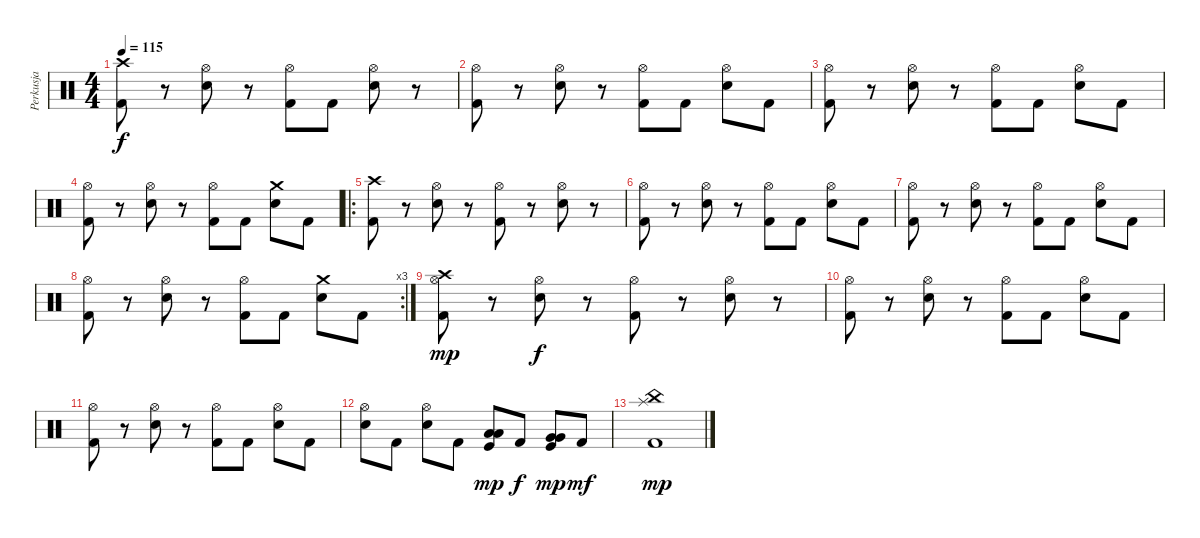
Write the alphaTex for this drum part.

\track ("Perkusja" "Perkusja") {instrument percussion}
\staff {score}
\articulation defaults
\ts (4 4)
\tempo 115
\clef neutral
\ks c
("Crash high (hit)" "Kick (hit) 2").8{dy f} r.8 ("Hi-Hat (open)" "Electric Snare (hit)").8 r.8 ("Hi-Hat (open)" "Kick (hit) 2").8 "Kick (hit) 2".8 ("Hi-Hat (open)" "Electric Snare (hit)").8 r.8 |
("Hi-Hat (open)" "Kick (hit) 2").8 r.8 ("Hi-Hat (open)" "Electric Snare (hit)").8 r.8 ("Hi-Hat (open)" "Kick (hit) 2").8 "Kick (hit) 2".8 ("Hi-Hat (open)" "Electric Snare (hit)").8 "Kick (hit) 2".8 |
("Hi-Hat (open)" "Kick (hit) 2").8 r.8 ("Hi-Hat (open)" "Electric Snare (hit)").8 r.8 ("Hi-Hat (open)" "Kick (hit) 2").8 "Kick (hit) 2".8 ("Hi-Hat (open)" "Electric Snare (hit)").8 "Kick (hit) 2".8 |
("Hi-Hat (open)" "Kick (hit) 2").8 r.8 ("Hi-Hat (open)" "Electric Snare (hit)").8 r.8 ("Hi-Hat (open)" "Kick (hit) 2").8 "Kick (hit) 2".8 ("Crash medium (hit)" "Electric Snare (hit)").8 "Kick (hit) 2".8 |
\ro
("Crash high (hit)" "Kick (hit) 2").8 r.8 ("Hi-Hat (open)" "Electric Snare (hit)").8 r.8 ("Hi-Hat (open)" "Kick (hit) 2").8 r.8 ("Hi-Hat (open)" "Electric Snare (hit)").8 r.8 |
("Hi-Hat (open)" "Kick (hit) 2").8 r.8 ("Hi-Hat (open)" "Electric Snare (hit)").8 r.8 ("Hi-Hat (open)" "Kick (hit) 2").8 "Kick (hit) 2".8 ("Hi-Hat (open)" "Electric Snare (hit)").8 "Kick (hit) 2".8 |
("Hi-Hat (open)" "Kick (hit) 2").8 r.8 ("Hi-Hat (open)" "Electric Snare (hit)").8 r.8 ("Hi-Hat (open)" "Kick (hit) 2").8 "Kick (hit) 2".8 ("Hi-Hat (open)" "Electric Snare (hit)").8 "Kick (hit) 2".8 |
\rc 3
("Hi-Hat (open)" "Kick (hit) 2").8 r.8 ("Hi-Hat (open)" "Electric Snare (hit)").8 r.8 ("Hi-Hat (open)" "Kick (hit) 2").8 "Kick (hit) 2".8 ("Crash medium (hit)" "Electric Snare (hit)").8 "Kick (hit) 2".8 |
("Crash high (hit)" "Hi-Hat (open)" "Kick (hit) 2").8{dy mp} r.8 ("Hi-Hat (open)" "Electric Snare (hit)").8{dy f} r.8 ("Hi-Hat (open)" "Kick (hit) 2").8 r.8 ("Hi-Hat (open)" "Electric Snare (hit)").8 r.8 |
("Hi-Hat (open)" "Kick (hit) 2").8 r.8 ("Hi-Hat (open)" "Electric Snare (hit)").8 r.8 ("Hi-Hat (open)" "Kick (hit) 2").8 "Kick (hit) 2".8 ("Hi-Hat (open)" "Electric Snare (hit)").8 "Kick (hit) 2".8 |
("Hi-Hat (open)" "Kick (hit) 2").8 r.8 ("Hi-Hat (open)" "Electric Snare (hit)").8 r.8 ("Hi-Hat (open)" "Kick (hit) 2").8 "Kick (hit) 2".8 ("Hi-Hat (open)" "Electric Snare (hit)").8 "Kick (hit) 2".8 |
("Hi-Hat (open)" "Electric Snare (hit)").8 "Kick (hit) 2".8 ("Hi-Hat (open)" "Electric Snare (hit)").8 "Kick (hit) 2".8 ("Low Tom (hit)" "Low Tom (hit)" "Kick (hit)").8{dy mp} "Kick (hit) 2".8{dy f} ("Very Low Tom (hit)" "Very Low Tom (hit)" "Kick (hit)").8{dy mp} "Kick (hit) 2".8{dy mf} |
("Splash (hit)" "China (hit)" "Kick (hit) 2").1{dy mp}
